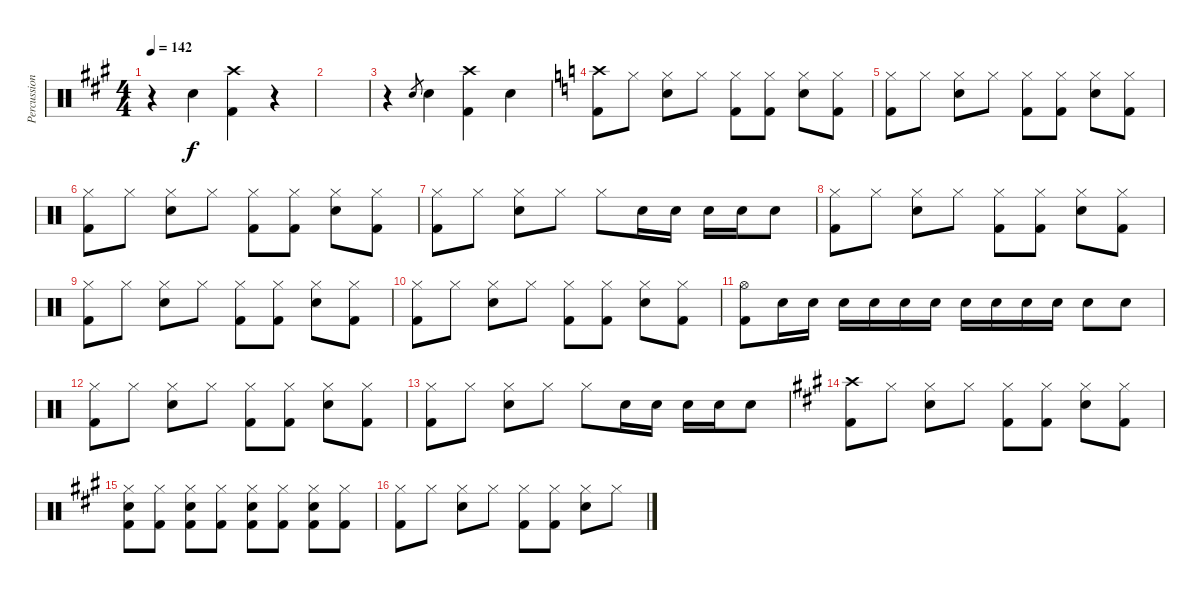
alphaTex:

\track ("Percussion" "Percussion") {instrument percussion}
\staff {score}
\articulation defaults
\ts (4 4)
\tempo 142
\clef neutral
\ks a
r.4{dy f} "Snare (hit) 2".4 ("Crash high (hit)" "Kick (hit) 2").4 r.4 |
|
r.4 "Snare (hit) 2".8{gr} "Snare (hit) 2".4 ("Crash high (hit)" "Kick (hit) 2").4 "Snare (hit) 2".4 |
\ks c
("Crash high (hit)" "Kick (hit) 2").8 "Hi-Hat (closed)".8 ("Hi-Hat (closed)" "Snare (hit) 2").8 "Hi-Hat (closed)".8 ("Hi-Hat (closed)" "Kick (hit) 2").8 ("Hi-Hat (closed)" "Kick (hit) 2").8 ("Hi-Hat (closed)" "Snare (hit) 2").8 ("Hi-Hat (closed)" "Kick (hit) 2").8 |
("Hi-Hat (closed)" "Kick (hit) 2").8 "Hi-Hat (closed)".8 ("Hi-Hat (closed)" "Snare (hit) 2").8 "Hi-Hat (closed)".8 ("Hi-Hat (closed)" "Kick (hit) 2").8 ("Hi-Hat (closed)" "Kick (hit) 2").8 ("Hi-Hat (closed)" "Snare (hit) 2").8 ("Hi-Hat (closed)" "Kick (hit) 2").8 |
("Hi-Hat (closed)" "Kick (hit) 2").8 "Hi-Hat (closed)".8 ("Hi-Hat (closed)" "Snare (hit) 2").8 "Hi-Hat (closed)".8 ("Hi-Hat (closed)" "Kick (hit) 2").8 ("Hi-Hat (closed)" "Kick (hit) 2").8 ("Hi-Hat (closed)" "Snare (hit) 2").8 ("Hi-Hat (closed)" "Kick (hit) 2").8 |
("Hi-Hat (closed)" "Kick (hit) 2").8 "Hi-Hat (closed)".8 ("Hi-Hat (closed)" "Snare (hit) 2").8 "Hi-Hat (closed)".8 "Hi-Hat (closed)".8 "Snare (hit) 2".16 "Snare (hit) 2".16 "Snare (hit) 2".16 "Snare (hit) 2".16 "Snare (hit) 2".8 |
("Hi-Hat (closed)" "Kick (hit) 2").8 "Hi-Hat (closed)".8 ("Hi-Hat (closed)" "Snare (hit) 2").8 "Hi-Hat (closed)".8 ("Hi-Hat (closed)" "Kick (hit) 2").8 ("Hi-Hat (closed)" "Kick (hit) 2").8 ("Hi-Hat (closed)" "Snare (hit) 2").8 ("Hi-Hat (closed)" "Kick (hit) 2").8 |
("Hi-Hat (closed)" "Kick (hit) 2").8 "Hi-Hat (closed)".8 ("Hi-Hat (closed)" "Snare (hit) 2").8 "Hi-Hat (closed)".8 ("Hi-Hat (closed)" "Kick (hit) 2").8 ("Hi-Hat (closed)" "Kick (hit) 2").8 ("Hi-Hat (closed)" "Snare (hit) 2").8 ("Hi-Hat (closed)" "Kick (hit) 2").8 |
("Hi-Hat (closed)" "Kick (hit) 2").8 "Hi-Hat (closed)".8 ("Hi-Hat (closed)" "Snare (hit) 2").8 "Hi-Hat (closed)".8 ("Hi-Hat (closed)" "Kick (hit) 2").8 ("Hi-Hat (closed)" "Kick (hit) 2").8 ("Hi-Hat (closed)" "Snare (hit) 2").8 ("Hi-Hat (closed)" "Kick (hit) 2").8 |
("Hi-Hat (open)" "Kick (hit) 2").8 "Snare (hit) 2".16 "Snare (hit) 2".16 "Snare (hit) 2".16 "Snare (hit) 2".16 "Snare (hit) 2".16 "Snare (hit) 2".16 "Snare (hit) 2".16 "Snare (hit) 2".16 "Snare (hit) 2".16 "Snare (hit) 2".16 "Snare (hit) 2".8 "Snare (hit) 2".8 |
("Hi-Hat (closed)" "Kick (hit) 2").8 "Hi-Hat (closed)".8 ("Hi-Hat (closed)" "Snare (hit) 2").8 "Hi-Hat (closed)".8 ("Hi-Hat (closed)" "Kick (hit) 2").8 ("Hi-Hat (closed)" "Kick (hit) 2").8 ("Hi-Hat (closed)" "Snare (hit) 2").8 ("Hi-Hat (closed)" "Kick (hit) 2").8 |
("Hi-Hat (closed)" "Kick (hit) 2").8 "Hi-Hat (closed)".8 ("Hi-Hat (closed)" "Snare (hit) 2").8 "Hi-Hat (closed)".8 "Hi-Hat (closed)".8 "Snare (hit) 2".16 "Snare (hit) 2".16 "Snare (hit) 2".16 "Snare (hit) 2".16 "Snare (hit) 2".8 |
\ks a
("Crash high (hit)" "Kick (hit) 2").8 "Hi-Hat (closed)".8 ("Hi-Hat (closed)" "Snare (hit) 2").8 "Hi-Hat (closed)".8 ("Hi-Hat (closed)" "Kick (hit) 2").8 ("Hi-Hat (closed)" "Kick (hit) 2").8 ("Hi-Hat (closed)" "Snare (hit) 2").8 ("Hi-Hat (closed)" "Kick (hit) 2").8 |
("Hi-Hat (closed)" "Snare (hit) 2" "Kick (hit) 2").8 ("Hi-Hat (closed)" "Kick (hit) 2").8 ("Hi-Hat (closed)" "Snare (hit) 2" "Kick (hit) 2").8 ("Hi-Hat (closed)" "Kick (hit) 2").8 ("Hi-Hat (closed)" "Snare (hit) 2" "Kick (hit) 2").8 ("Hi-Hat (closed)" "Kick (hit) 2").8 ("Hi-Hat (closed)" "Snare (hit) 2" "Kick (hit) 2").8 ("Hi-Hat (closed)" "Kick (hit) 2").8 |
("Hi-Hat (closed)" "Kick (hit) 2").8 "Hi-Hat (closed)".8 ("Hi-Hat (closed)" "Snare (hit) 2").8 "Hi-Hat (closed)".8 ("Hi-Hat (closed)" "Kick (hit) 2").8 ("Hi-Hat (closed)" "Kick (hit) 2").8 ("Hi-Hat (closed)" "Snare (hit) 2").8 "Hi-Hat (closed)".8
